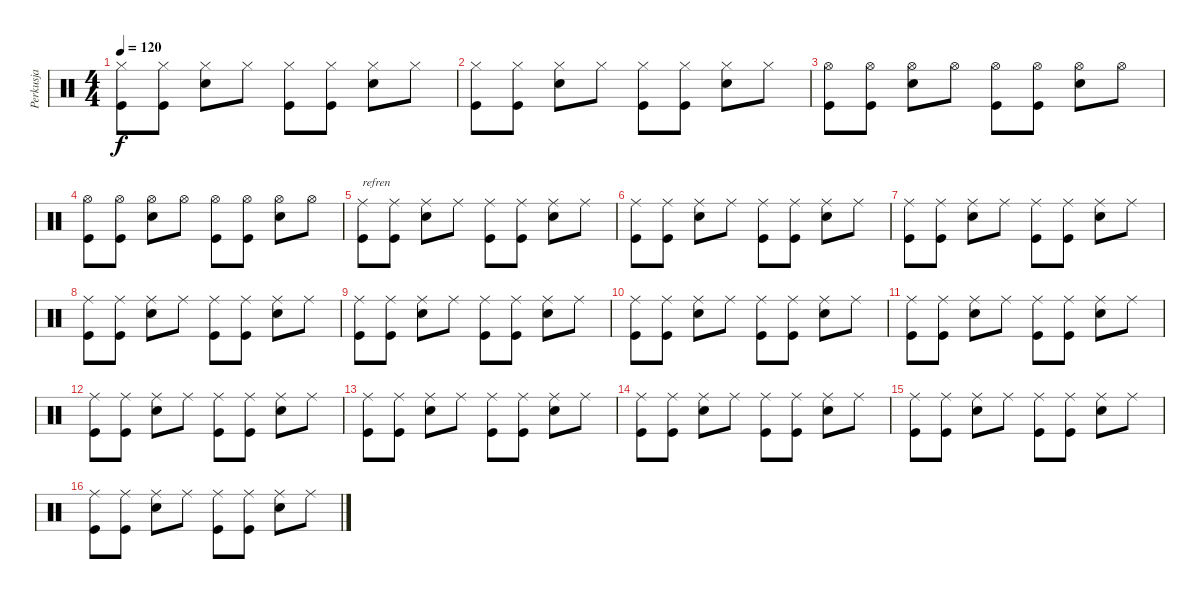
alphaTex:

\track ("Perkusja" "Perkusja") {instrument percussion}
\staff {score}
\articulation defaults
\ts (4 4)
\tempo 120
\clef neutral
\ks c
("Hi-Hat (closed)" "Kick (hit)").8{dy f} ("Hi-Hat (closed)" "Kick (hit)").8 ("Hi-Hat (closed)" "Electric Snare (hit)").8 "Hi-Hat (closed)".8 ("Hi-Hat (closed)" "Kick (hit)").8 ("Hi-Hat (closed)" "Kick (hit)").8 ("Hi-Hat (closed)" "Electric Snare (hit)").8 "Hi-Hat (closed)".8 |
("Hi-Hat (closed)" "Kick (hit)").8 ("Hi-Hat (closed)" "Kick (hit)").8 ("Hi-Hat (closed)" "Electric Snare (hit)").8 "Hi-Hat (closed)".8 ("Hi-Hat (closed)" "Kick (hit)").8 ("Hi-Hat (closed)" "Kick (hit)").8 ("Hi-Hat (closed)" "Electric Snare (hit)").8 "Hi-Hat (closed)".8 |
("Hi-Hat (open)" "Kick (hit)").8 ("Hi-Hat (open)" "Kick (hit)").8 ("Hi-Hat (open)" "Electric Snare (hit)").8 "Hi-Hat (open)".8 ("Hi-Hat (open)" "Kick (hit)").8 ("Hi-Hat (open)" "Kick (hit)").8 ("Hi-Hat (open)" "Electric Snare (hit)").8 "Hi-Hat (open)".8 |
("Hi-Hat (open)" "Kick (hit)").8 ("Hi-Hat (open)" "Kick (hit)").8 ("Hi-Hat (open)" "Electric Snare (hit)").8 "Hi-Hat (open)".8 ("Hi-Hat (open)" "Kick (hit)").8 ("Hi-Hat (open)" "Kick (hit)").8 ("Hi-Hat (open)" "Electric Snare (hit)").8 "Hi-Hat (open)".8 |
("Ride (middle)" "Kick (hit)").8{txt "refren"} ("Ride (middle)" "Kick (hit)").8 ("Ride (middle)" "Electric Snare (hit)").8 "Ride (middle)".8 ("Ride (middle)" "Kick (hit)").8 ("Ride (middle)" "Kick (hit)").8 ("Ride (middle)" "Electric Snare (hit)").8 "Ride (middle)".8 |
("Ride (middle)" "Kick (hit)").8 ("Ride (middle)" "Kick (hit)").8 ("Ride (middle)" "Electric Snare (hit)").8 "Ride (middle)".8 ("Ride (middle)" "Kick (hit)").8 ("Ride (middle)" "Kick (hit)").8 ("Ride (middle)" "Electric Snare (hit)").8 "Ride (middle)".8 |
("Ride (middle)" "Kick (hit)").8 ("Ride (middle)" "Kick (hit)").8 ("Ride (middle)" "Electric Snare (hit)").8 "Ride (middle)".8 ("Ride (middle)" "Kick (hit)").8 ("Ride (middle)" "Kick (hit)").8 ("Ride (middle)" "Electric Snare (hit)").8 "Ride (middle)".8 |
("Ride (middle)" "Kick (hit)").8 ("Ride (middle)" "Kick (hit)").8 ("Ride (middle)" "Electric Snare (hit)").8 "Ride (middle)".8 ("Ride (middle)" "Kick (hit)").8 ("Ride (middle)" "Kick (hit)").8 ("Ride (middle)" "Electric Snare (hit)").8 "Ride (middle)".8 |
("Ride (middle)" "Kick (hit)").8 ("Ride (middle)" "Kick (hit)").8 ("Ride (middle)" "Electric Snare (hit)").8 "Ride (middle)".8 ("Ride (middle)" "Kick (hit)").8 ("Ride (middle)" "Kick (hit)").8 ("Ride (middle)" "Electric Snare (hit)").8 "Ride (middle)".8 |
("Ride (middle)" "Kick (hit)").8 ("Ride (middle)" "Kick (hit)").8 ("Ride (middle)" "Electric Snare (hit)").8 "Ride (middle)".8 ("Ride (middle)" "Kick (hit)").8 ("Ride (middle)" "Kick (hit)").8 ("Ride (middle)" "Electric Snare (hit)").8 "Ride (middle)".8 |
("Ride (middle)" "Kick (hit)").8 ("Ride (middle)" "Kick (hit)").8 ("Ride (middle)" "Electric Snare (hit)").8 "Ride (middle)".8 ("Ride (middle)" "Kick (hit)").8 ("Ride (middle)" "Kick (hit)").8 ("Ride (middle)" "Electric Snare (hit)").8 "Ride (middle)".8 |
("Ride (middle)" "Kick (hit)").8 ("Ride (middle)" "Kick (hit)").8 ("Ride (middle)" "Electric Snare (hit)").8 "Ride (middle)".8 ("Ride (middle)" "Kick (hit)").8 ("Ride (middle)" "Kick (hit)").8 ("Ride (middle)" "Electric Snare (hit)").8 "Ride (middle)".8 |
("Ride (middle)" "Kick (hit)").8 ("Ride (middle)" "Kick (hit)").8 ("Ride (middle)" "Electric Snare (hit)").8 "Ride (middle)".8 ("Ride (middle)" "Kick (hit)").8 ("Ride (middle)" "Kick (hit)").8 ("Ride (middle)" "Electric Snare (hit)").8 "Ride (middle)".8 |
("Ride (middle)" "Kick (hit)").8 ("Ride (middle)" "Kick (hit)").8 ("Ride (middle)" "Electric Snare (hit)").8 "Ride (middle)".8 ("Ride (middle)" "Kick (hit)").8 ("Ride (middle)" "Kick (hit)").8 ("Ride (middle)" "Electric Snare (hit)").8 "Ride (middle)".8 |
("Ride (middle)" "Kick (hit)").8 ("Ride (middle)" "Kick (hit)").8 ("Ride (middle)" "Electric Snare (hit)").8 "Ride (middle)".8 ("Ride (middle)" "Kick (hit)").8 ("Ride (middle)" "Kick (hit)").8 ("Ride (middle)" "Electric Snare (hit)").8 "Ride (middle)".8 |
("Ride (middle)" "Kick (hit)").8 ("Ride (middle)" "Kick (hit)").8 ("Ride (middle)" "Electric Snare (hit)").8 "Ride (middle)".8 ("Ride (middle)" "Kick (hit)").8 ("Ride (middle)" "Kick (hit)").8 ("Ride (middle)" "Electric Snare (hit)").8 "Ride (middle)".8
